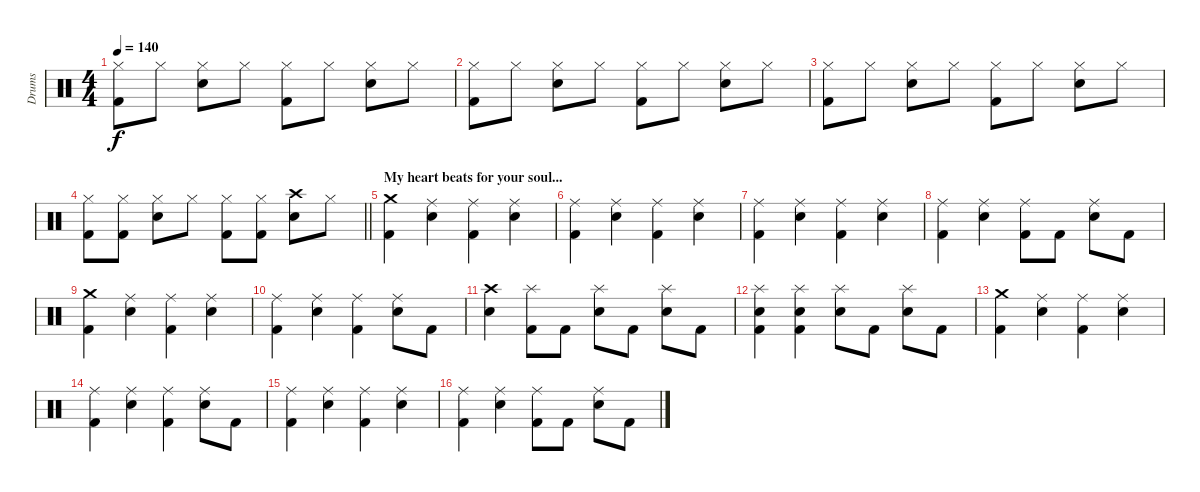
\track ("Drums" "Drums") {instrument percussion}
\staff {score}
\articulation defaults
\ts (4 4)
\tempo 140
\clef neutral
\ks c
("Hi-Hat (closed)" "Kick (hit) 2").8{dy f} "Hi-Hat (closed)".8 ("Hi-Hat (closed)" "Electric Snare (hit)").8 "Hi-Hat (closed)".8 ("Hi-Hat (closed)" "Kick (hit) 2").8 "Hi-Hat (closed)".8 ("Hi-Hat (closed)" "Electric Snare (hit)").8 "Hi-Hat (closed)".8 |
("Hi-Hat (closed)" "Kick (hit) 2").8 "Hi-Hat (closed)".8 ("Hi-Hat (closed)" "Electric Snare (hit)").8 "Hi-Hat (closed)".8 ("Hi-Hat (closed)" "Kick (hit) 2").8 "Hi-Hat (closed)".8 ("Hi-Hat (closed)" "Electric Snare (hit)").8 "Hi-Hat (closed)".8 |
("Hi-Hat (closed)" "Kick (hit) 2").8 "Hi-Hat (closed)".8 ("Hi-Hat (closed)" "Electric Snare (hit)").8 "Hi-Hat (closed)".8 ("Hi-Hat (closed)" "Kick (hit) 2").8 "Hi-Hat (closed)".8 ("Hi-Hat (closed)" "Electric Snare (hit)").8 "Hi-Hat (closed)".8 |
\barLineRight lightlight
("Hi-Hat (closed)" "Kick (hit) 2").8 ("Hi-Hat (closed)" "Kick (hit) 2").8 ("Hi-Hat (closed)" "Electric Snare (hit)").8 "Hi-Hat (closed)".8 ("Hi-Hat (closed)" "Kick (hit) 2").8 ("Hi-Hat (closed)" "Kick (hit) 2").8 ("Crash high (hit)" "Electric Snare (hit)").8 "Hi-Hat (closed)".8 |
\section ("" "My heart beats for your soul...")
("Crash medium (hit)" "Kick (hit) 2").4 ("Ride (middle)" "Electric Snare (hit)").4 ("Ride (middle)" "Kick (hit) 2").4 ("Ride (middle)" "Electric Snare (hit)").4 |
("Ride (middle)" "Kick (hit) 2").4 ("Ride (middle)" "Electric Snare (hit)").4 ("Ride (middle)" "Kick (hit) 2").4 ("Ride (middle)" "Electric Snare (hit)").4 |
("Ride (middle)" "Kick (hit) 2").4 ("Ride (middle)" "Electric Snare (hit)").4 ("Ride (middle)" "Kick (hit) 2").4 ("Ride (middle)" "Electric Snare (hit)").4 |
("Ride (middle)" "Kick (hit) 2").4 ("Ride (middle)" "Electric Snare (hit)").4 ("Ride (middle)" "Kick (hit) 2").8 "Kick (hit) 2".8 ("Ride (middle)" "Electric Snare (hit)").8 "Kick (hit) 2".8 |
("Crash medium (hit)" "Kick (hit) 2").4 ("Ride (middle)" "Electric Snare (hit)").4 ("Ride (middle)" "Kick (hit) 2").4 ("Ride (middle)" "Electric Snare (hit)").4 |
("Ride (middle)" "Kick (hit) 2").4 ("Ride (middle)" "Electric Snare (hit)").4 ("Ride (middle)" "Kick (hit) 2").4 ("Ride (middle)" "Electric Snare (hit)").8 "Kick (hit) 2".8 |
("Crash high (hit)" "Electric Snare (hit)").4 ("Splash (hit)" "Kick (hit) 2").8 "Kick (hit) 2".8 ("Splash (hit)" "Electric Snare (hit)").8 "Kick (hit) 2".8 ("Splash (hit)" "Electric Snare (hit)").8 "Kick (hit) 2".8 |
("Splash (hit)" "Electric Snare (hit)" "Kick (hit) 2").4 ("Splash (hit)" "Electric Snare (hit)" "Kick (hit) 2").4 ("Splash (hit)" "Electric Snare (hit)").8 "Kick (hit) 2".8 ("Splash (hit)" "Electric Snare (hit)").8 "Kick (hit) 2".8 |
("Crash medium (hit)" "Kick (hit) 2").4 ("Ride (middle)" "Electric Snare (hit)").4 ("Ride (middle)" "Kick (hit) 2").4 ("Ride (middle)" "Electric Snare (hit)").4 |
("Ride (middle)" "Kick (hit) 2").4 ("Ride (middle)" "Electric Snare (hit)").4 ("Ride (middle)" "Kick (hit) 2").4 ("Ride (middle)" "Electric Snare (hit)").8 "Kick (hit) 2".8 |
("Ride (middle)" "Kick (hit) 2").4 ("Ride (middle)" "Electric Snare (hit)").4 ("Ride (middle)" "Kick (hit) 2").4 ("Ride (middle)" "Electric Snare (hit)").4 |
("Ride (middle)" "Kick (hit) 2").4 ("Ride (middle)" "Electric Snare (hit)").4 ("Ride (middle)" "Kick (hit) 2").8 "Kick (hit) 2".8 ("Ride (middle)" "Electric Snare (hit)").8 "Kick (hit) 2".8
